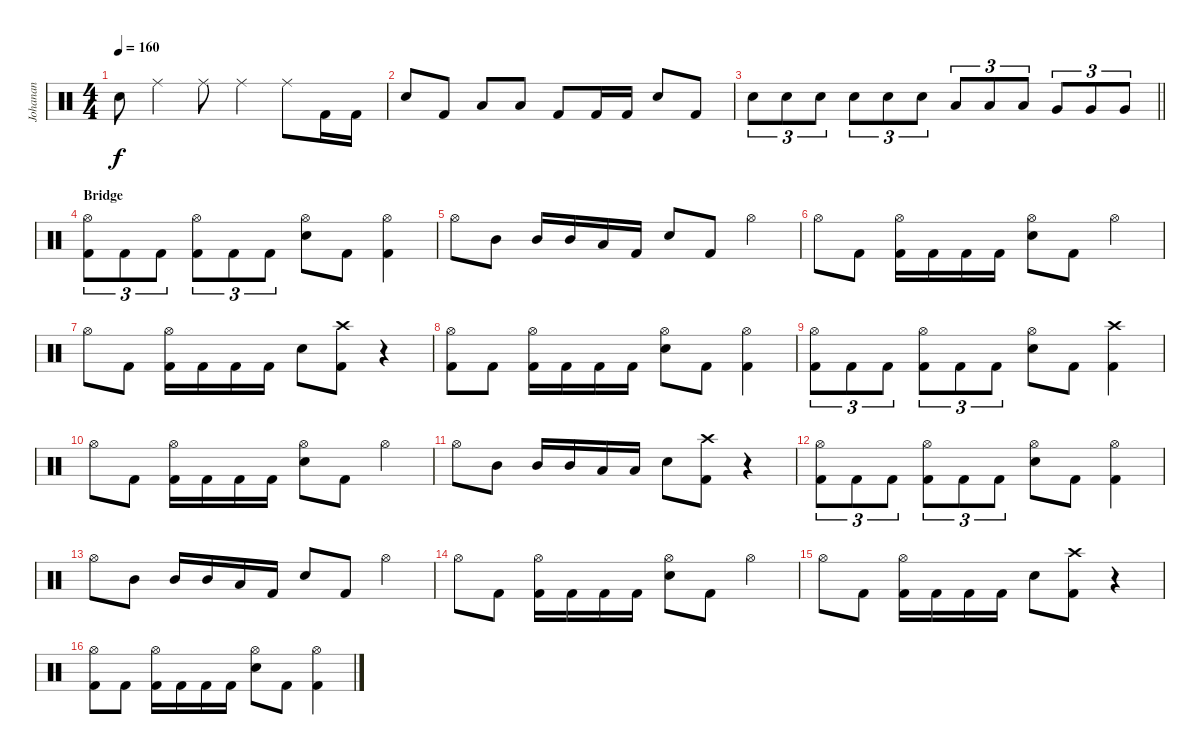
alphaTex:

\track ("Johanan" "Johanan") {instrument percussion}
\staff {score}
\articulation defaults
\ts (4 4)
\tempo 160
\clef neutral
\ks c "Snare (hit)"{t}.8{dy f} "Ride (middle)".4 "Ride (middle)".8 "Ride (middle)".4 "Ride (middle)".8 "Kick (hit) 2".16 "Kick (hit) 2".16
|
"Electric Snare (hit)".8 "Kick (hit) 2".8 "Low Tom (hit)".8 "Low Tom (hit)".8 "Kick (hit) 2".8 "Kick (hit) 2".16 "Kick (hit) 2".16 "Electric Snare (hit)".8 "Kick (hit) 2".8 |
\barLineRight lightlight "Electric Snare (hit)".8{tu (3 2)} "Electric Snare (hit)".8{tu (3 2)} "Electric Snare (hit)".8{tu (3 2)} "Electric Snare (hit)".8{tu (3 2)} "Electric Snare (hit)".8{tu (3 2)} "Electric Snare (hit)".8{tu (3 2)} "Low Tom (hit)".8{tu (3 2)} "Low Tom (hit)".8{tu (3 2)} "Low Tom (hit)".8{tu (3 2)} "Very Low Tom (hit)".8{tu (3 2)} "Very Low Tom (hit)".8{tu (3 2)} "Very Low Tom (hit)".8{tu (3 2)}
|
\section ("" "Bridge")
("Hi-Hat (open)" "Kick (hit) 2").8{tu (3 2)} "Kick (hit) 2".8{tu (3 2)} "Kick (hit) 2".8{tu (3 2)} ("Hi-Hat (open)" "Kick (hit) 2").8{tu (3 2)} "Kick (hit) 2".8{tu (3 2)} "Kick (hit) 2".8{tu (3 2)} ("Hi-Hat (open)" "Electric Snare (hit)").8 "Kick (hit) 2".8 ("Hi-Hat (open)" "Kick (hit) 2").4 |
"Hi-Hat (open)".8 "Mid Tom (hit)".8 "Mid Tom (hit)".16 "Mid Tom (hit)".16 "Low Tom (hit)".16 "Kick (hit) 2".16 "Electric Snare (hit)".8 "Kick (hit) 2".8 "Hi-Hat (open)".4 |
"Hi-Hat (open)".8 "Kick (hit) 2".8 ("Hi-Hat (open)" "Kick (hit) 2").16 "Kick (hit) 2".16 "Kick (hit) 2".16 "Kick (hit) 2".16 ("Hi-Hat (open)" "Electric Snare (hit)").8 "Kick (hit) 2".8 "Hi-Hat (open)".4 |
"Hi-Hat (open)".8 "Kick (hit) 2".8 ("Hi-Hat (open)" "Kick (hit) 2").16 "Kick (hit) 2".16 "Kick (hit) 2".16 "Kick (hit) 2".16 "Electric Snare (hit)".8 ("Crash high (hit)" "Kick (hit) 2").8 r.4 |
("Hi-Hat (open)" "Kick (hit) 2").8 "Kick (hit) 2".8 ("Hi-Hat (open)" "Kick (hit) 2").16 "Kick (hit) 2".16 "Kick (hit) 2".16 "Kick (hit) 2".16 ("Hi-Hat (open)" "Electric Snare (hit)").8 "Kick (hit) 2".8 ("Hi-Hat (open)" "Kick (hit) 2").4 |
("Hi-Hat (open)" "Kick (hit) 2").8{tu (3 2)} "Kick (hit) 2".8{tu (3 2)} "Kick (hit) 2".8{tu (3 2)} ("Hi-Hat (open)" "Kick (hit) 2").8{tu (3 2)} "Kick (hit) 2".8{tu (3 2)} "Kick (hit) 2".8{tu (3 2)} ("Hi-Hat (open)" "Electric Snare (hit)").8 "Kick (hit) 2".8 ("Crash high (hit)" "Kick (hit) 2").4 |
"Hi-Hat (open)".8 "Kick (hit) 2".8 ("Hi-Hat (open)" "Kick (hit) 2").16 "Kick (hit) 2".16 "Kick (hit) 2".16 "Kick (hit) 2".16 ("Hi-Hat (open)" "Electric Snare (hit)").8 "Kick (hit) 2".8 "Hi-Hat (open)".4 |
"Hi-Hat (open)".8 "Mid Tom (hit)".8 "Mid Tom (hit)".16 "Mid Tom (hit)".16 "Low Tom (hit)".16 "Low Tom (hit)".16 "Electric Snare (hit)".8 ("Crash high (hit)" "Kick (hit) 2").8 r.4 |
("Hi-Hat (open)" "Kick (hit) 2").8{tu (3 2)} "Kick (hit) 2".8{tu (3 2)} "Kick (hit) 2".8{tu (3 2)} ("Hi-Hat (open)" "Kick (hit) 2").8{tu (3 2)} "Kick (hit) 2".8{tu (3 2)} "Kick (hit) 2".8{tu (3 2)} ("Hi-Hat (open)" "Electric Snare (hit)").8 "Kick (hit) 2".8 ("Hi-Hat (open)" "Kick (hit) 2").4 |
"Hi-Hat (open)".8 "Mid Tom (hit)".8 "Mid Tom (hit)".16 "Mid Tom (hit)".16 "Low Tom (hit)".16 "Kick (hit) 2".16 "Electric Snare (hit)".8 "Kick (hit) 2".8 "Hi-Hat (open)".4 |
"Hi-Hat (open)".8 "Kick (hit) 2".8 ("Hi-Hat (open)" "Kick (hit) 2").16 "Kick (hit) 2".16 "Kick (hit) 2".16 "Kick (hit) 2".16 ("Hi-Hat (open)" "Electric Snare (hit)").8 "Kick (hit) 2".8 "Hi-Hat (open)".4 |
"Hi-Hat (open)".8 "Kick (hit) 2".8 ("Hi-Hat (open)" "Kick (hit) 2").16 "Kick (hit) 2".16 "Kick (hit) 2".16 "Kick (hit) 2".16 "Electric Snare (hit)".8 ("Crash high (hit)" "Kick (hit) 2").8 r.4 |
("Hi-Hat (open)" "Kick (hit) 2").8 "Kick (hit) 2".8 ("Hi-Hat (open)" "Kick (hit) 2").16 "Kick (hit) 2".16 "Kick (hit) 2".16 "Kick (hit) 2".16 ("Hi-Hat (open)" "Electric Snare (hit)").8 "Kick (hit) 2".8 ("Hi-Hat (open)" "Kick (hit) 2").4
